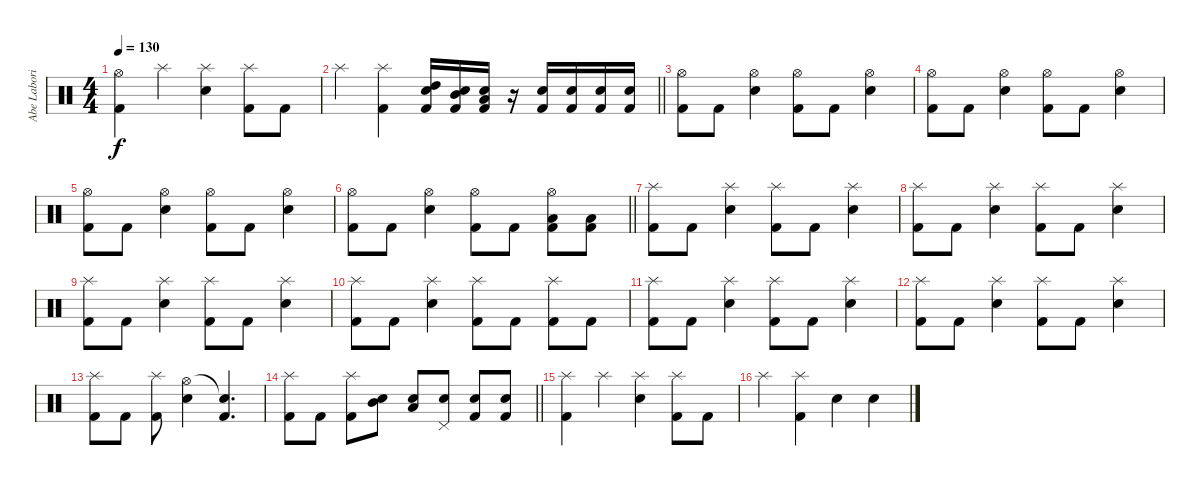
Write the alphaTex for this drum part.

\track ("Abe Laboriel, Jr." "Abe Labori") {instrument percussion}
\staff {score}
\articulation defaults
\ts (4 4)
\tempo 130
\clef neutral
\ks c
("Hi-Hat (open)" "Kick (hit) 2").4{dy f} "Splash (hit)".4 ("Splash (hit)" "Snare (hit) 2").4 ("Splash (hit)" "Kick (hit) 2").8 "Kick (hit) 2".8 |
\barLineRight lightlight "Splash (hit)".4
("Splash (hit)" "Kick (hit) 2").4 ("Kick (hit) 2" "Snare (hit) 2" "High Tom (hit)").16 ("Kick (hit) 2" "Snare (hit) 2" "Mid Tom (hit)").16 ("Kick (hit) 2" "Snare (hit) 2" "Low Tom (hit)").16 r.16 ("Kick (hit) 2" "Snare (hit) 2").16 ("Kick (hit) 2" "Snare (hit) 2").16 ("Kick (hit) 2" "Snare (hit) 2").16 ("Kick (hit) 2" "Snare (hit) 2").16 |
("Hi-Hat (open)" "Kick (hit) 2").8 "Kick (hit) 2".8 ("Hi-Hat (open)" "Snare (hit) 2").4 ("Hi-Hat (open)" "Kick (hit) 2").8 "Kick (hit) 2".8 ("Hi-Hat (open)" "Snare (hit) 2").4 |
("Hi-Hat (open)" "Kick (hit) 2").8 "Kick (hit) 2".8 ("Hi-Hat (open)" "Snare (hit) 2").4 ("Hi-Hat (open)" "Kick (hit) 2").8 "Kick (hit) 2".8 ("Hi-Hat (open)" "Snare (hit) 2").4 |
("Hi-Hat (open)" "Kick (hit) 2").8 "Kick (hit) 2".8 ("Hi-Hat (open)" "Snare (hit) 2").4 ("Hi-Hat (open)" "Kick (hit) 2").8 "Kick (hit) 2".8 ("Hi-Hat (open)" "Snare (hit) 2").4 |
\barLineRight lightlight
("Hi-Hat (open)" "Kick (hit) 2").8 "Kick (hit) 2".8 ("Hi-Hat (open)" "Snare (hit) 2").4 ("Hi-Hat (open)" "Kick (hit) 2").8 "Kick (hit) 2".8 ("Hi-Hat (open)" "Kick (hit) 2" "Low Floor Tom (hit)").8 ("Kick (hit) 2" "Low Floor Tom (hit)").8 |
("Splash (hit)" "Kick (hit) 2").8 "Kick (hit) 2".8 ("Splash (hit)" "Snare (hit) 2").4 ("Splash (hit)" "Kick (hit) 2").8 "Kick (hit) 2".8 ("Splash (hit)" "Snare (hit) 2").4 |
("Splash (hit)" "Kick (hit) 2").8 "Kick (hit) 2".8 ("Splash (hit)" "Snare (hit) 2").4 ("Splash (hit)" "Kick (hit) 2").8 "Kick (hit) 2".8 ("Splash (hit)" "Snare (hit) 2").4 |
("Splash (hit)" "Kick (hit) 2").8 "Kick (hit) 2".8 ("Splash (hit)" "Snare (hit) 2").4 ("Splash (hit)" "Kick (hit) 2").8 "Kick (hit) 2".8 ("Splash (hit)" "Snare (hit) 2").4 |
("Splash (hit)" "Kick (hit) 2").8 "Kick (hit) 2".8 ("Splash (hit)" "Snare (hit) 2").4 ("Splash (hit)" "Kick (hit) 2").8 "Kick (hit) 2".8 ("Splash (hit)" "Kick (hit) 2").8 "Kick (hit) 2".8 |
("Splash (hit)" "Kick (hit) 2").8 "Kick (hit) 2".8 ("Splash (hit)" "Snare (hit) 2").4 ("Splash (hit)" "Kick (hit) 2").8 "Kick (hit) 2".8 ("Splash (hit)" "Snare (hit) 2").4 |
("Splash (hit)" "Kick (hit) 2").8 "Kick (hit) 2".8 ("Splash (hit)" "Snare (hit) 2").4 ("Splash (hit)" "Kick (hit) 2").8 "Kick (hit) 2".8 ("Splash (hit)" "Snare (hit) 2").4 |
("Splash (hit)" "Kick (hit) 2").8 "Kick (hit) 2".8 ("Splash (hit)" "Kick (hit) 2").8 ("Hi-Hat (open)" "Snare (hit) 2").4 ("Snare (hit)"{t} "Kick (hit) 2").4{d} |
\barLineRight lightlight
("Splash (hit)" "Kick (hit) 2").8 "Kick (hit) 2".8 ("Splash (hit)" "Kick (hit) 2").8 ("Snare (hit) 2" "Mid Tom (hit)").8 ("Snare (hit) 2" "Low Tom (hit)").8 ("Snare (hit) 2" "Pedal Hi-Hat (hit)").8 ("Snare (hit) 2" "Kick (hit) 2").8 ("Snare (hit) 2" "Kick (hit) 2").8 |
("Splash (hit)" "Kick (hit) 2").4 "Splash (hit)".4 ("Splash (hit)" "Snare (hit) 2").4 ("Splash (hit)" "Kick (hit) 2").8 "Kick (hit) 2".8 |
"Splash (hit)".4 ("Splash (hit)" "Kick (hit) 2").4 "Snare (hit) 2".4 "Snare (hit) 2".4
